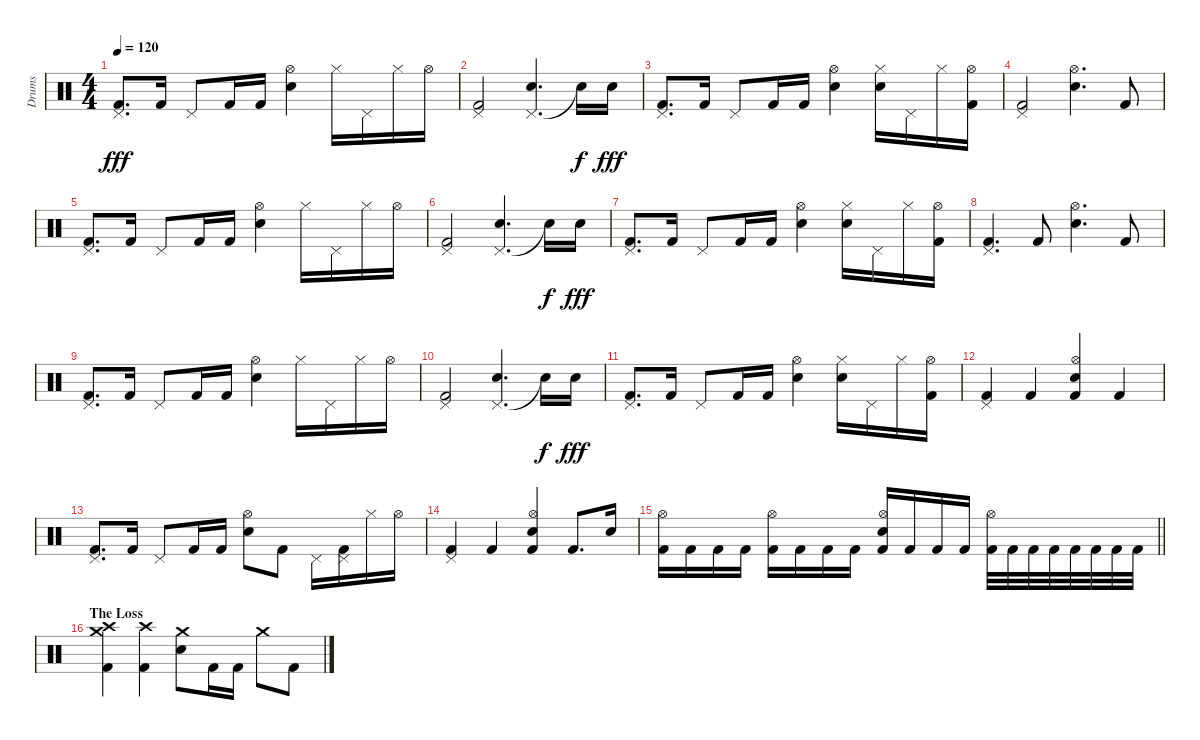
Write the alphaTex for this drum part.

\track ("Drums" "Drums") {instrument percussion}
\staff {score}
\articulation defaults
\ts (4 4)
\tempo 120
\clef neutral
\ks c
("Pedal Hi-Hat (hit)" "Kick (hit) 2").8{d dy fff} "Kick (hit) 2".16 "Pedal Hi-Hat (hit)".8 "Kick (hit) 2".16 "Kick (hit) 2".16 ("Hi-Hat (open)" "Electric Snare (hit)").4 "Hi-Hat (closed)".16 "Pedal Hi-Hat (hit)".16 "Hi-Hat (closed)".16 "Hi-Hat (open)".16 |
("Pedal Hi-Hat (hit)" "Kick (hit) 2").2 ("Pedal Hi-Hat (hit)" "Snare (hit) 2").4{d} "Snare (hit)"{t}.16{dy f} "Snare (hit) 2".16{dy fff} |
("Pedal Hi-Hat (hit)" "Kick (hit) 2").8{d} "Kick (hit) 2".16 "Pedal Hi-Hat (hit)".8 "Kick (hit) 2".16 "Kick (hit) 2".16 ("Hi-Hat (open)" "Snare (hit) 2").4 ("Hi-Hat (closed)" "Snare (hit) 2").16 "Pedal Hi-Hat (hit)".16 "Hi-Hat (closed)".16 ("Hi-Hat (open)" "Kick (hit) 2").16 |
("Pedal Hi-Hat (hit)" "Kick (hit) 2").2 ("Hi-Hat (open)" "Snare (hit) 2").4{d} "Kick (hit) 2".8 |
("Pedal Hi-Hat (hit)" "Kick (hit) 2").8{d} "Kick (hit) 2".16 "Pedal Hi-Hat (hit)".8 "Kick (hit) 2".16 "Kick (hit) 2".16 ("Hi-Hat (open)" "Electric Snare (hit)").4 "Hi-Hat (closed)".16 "Pedal Hi-Hat (hit)".16 "Hi-Hat (closed)".16 "Hi-Hat (open)".16 |
("Pedal Hi-Hat (hit)" "Kick (hit) 2").2 ("Pedal Hi-Hat (hit)" "Snare (hit) 2").4{d} "Snare (hit)"{t}.16{dy f} "Snare (hit) 2".16{dy fff} |
("Pedal Hi-Hat (hit)" "Kick (hit) 2").8{d} "Kick (hit) 2".16 "Pedal Hi-Hat (hit)".8 "Kick (hit) 2".16 "Kick (hit) 2".16 ("Hi-Hat (open)" "Snare (hit) 2").4 ("Hi-Hat (closed)" "Snare (hit) 2").16 "Pedal Hi-Hat (hit)".16 "Hi-Hat (closed)".16 ("Hi-Hat (open)" "Kick (hit) 2").16 |
("Pedal Hi-Hat (hit)" "Kick (hit) 2").4{d} "Kick (hit) 2".8 ("Hi-Hat (open)" "Snare (hit) 2").4{d} "Kick (hit) 2".8 |
("Pedal Hi-Hat (hit)" "Kick (hit) 2").8{d} "Kick (hit) 2".16 "Pedal Hi-Hat (hit)".8 "Kick (hit) 2".16 "Kick (hit) 2".16 ("Hi-Hat (open)" "Snare (hit) 2").4 "Hi-Hat (closed)".16 "Pedal Hi-Hat (hit)".16 "Hi-Hat (closed)".16 "Hi-Hat (open)".16 |
("Pedal Hi-Hat (hit)" "Kick (hit) 2").2 ("Pedal Hi-Hat (hit)" "Snare (hit) 2").4{d} "Snare (hit)"{t}.16{dy f} "Snare (hit) 2".16{dy fff} |
("Pedal Hi-Hat (hit)" "Kick (hit) 2").8{d} "Kick (hit) 2".16 "Pedal Hi-Hat (hit)".8 "Kick (hit) 2".16 "Kick (hit) 2".16 ("Hi-Hat (open)" "Snare (hit) 2").4 ("Hi-Hat (closed)" "Snare (hit) 2").16 "Pedal Hi-Hat (hit)".16 "Hi-Hat (closed)".16 ("Hi-Hat (open)" "Kick (hit) 2").16 |
("Pedal Hi-Hat (hit)" "Kick (hit) 2").4 "Kick (hit) 2".4 ("Hi-Hat (open)" "Snare (hit) 2" "Kick (hit) 2").4 "Kick (hit) 2".4 |
("Pedal Hi-Hat (hit)" "Kick (hit) 2").8{d} "Kick (hit) 2".16 "Pedal Hi-Hat (hit)".8 "Kick (hit) 2".16 "Kick (hit) 2".16 ("Hi-Hat (open)" "Snare (hit) 2").8 "Kick (hit) 2".8 "Pedal Hi-Hat (hit)".16 ("Pedal Hi-Hat (hit)" "Kick (hit) 2").16 "Hi-Hat (closed)".16 "Hi-Hat (open)".16 |
("Pedal Hi-Hat (hit)" "Kick (hit) 2").4 "Kick (hit) 2".4 ("Hi-Hat (open)" "Snare (hit) 2" "Kick (hit) 2").4 "Kick (hit) 2".8{d} "Snare (hit) 2".16 |
\barLineRight lightlight
("Hi-Hat (open)" "Kick (hit) 2").16 "Kick (hit) 2".16 "Kick (hit) 2".16 "Kick (hit) 2".16 ("Hi-Hat (open)" "Kick (hit) 2").16 "Kick (hit) 2".16 "Kick (hit) 2".16 "Kick (hit) 2".16 ("Hi-Hat (open)" "Snare (hit) 2" "Kick (hit) 2").16 "Kick (hit) 2".16 "Kick (hit) 2".16 "Kick (hit) 2".16 ("Hi-Hat (open)" "Kick (hit) 2").32 "Kick (hit) 2".32 "Kick (hit) 2".32 "Kick (hit) 2".32 "Kick (hit) 2".32 "Kick (hit) 2".32 "Kick (hit) 2".32 "Kick (hit) 2".32 |
\section ("" "The Loss")
("Crash medium (hit)" "Crash high (hit)" "Kick (hit) 2").4 ("Crash high (hit)" "Kick (hit) 2").4 ("Crash medium (hit)" "Electric Snare (hit)").8 "Kick (hit) 2".16 "Kick (hit) 2".16 "Crash medium (hit)".8 "Kick (hit) 2".8
